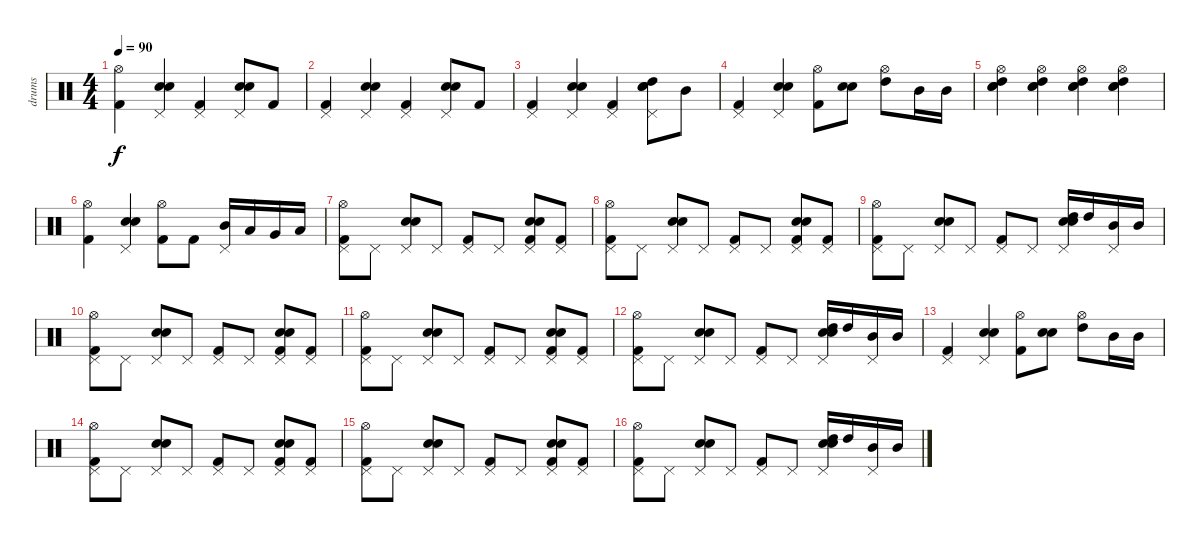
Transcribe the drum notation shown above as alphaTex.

\track ("drums" "drums") {instrument percussion}
\staff {score}
\articulation defaults
\ts (4 4)
\tempo 90
\clef neutral
\ks c
("Hi-Hat (open)" "Kick (hit) 2").4{dy f} ("Snare (hit) 2" "Electric Snare (hit)" "Pedal Hi-Hat (hit)").4 ("Kick (hit) 2" "Pedal Hi-Hat (hit)").4 ("Snare (hit) 2" "Electric Snare (hit)" "Pedal Hi-Hat (hit)").8 "Kick (hit) 2".8 |
("Kick (hit) 2" "Pedal Hi-Hat (hit)").4 ("Snare (hit) 2" "Electric Snare (hit)" "Pedal Hi-Hat (hit)").4 ("Kick (hit) 2" "Pedal Hi-Hat (hit)").4 ("Snare (hit) 2" "Electric Snare (hit)" "Pedal Hi-Hat (hit)").8 "Kick (hit) 2".8 |
("Kick (hit) 2" "Pedal Hi-Hat (hit)").4 ("Snare (hit) 2" "Electric Snare (hit)" "Pedal Hi-Hat (hit)").4 ("Kick (hit) 2" "Pedal Hi-Hat (hit)").4 ("Snare (hit) 2" "Electric Snare (hit)" "High Tom (hit)" "Pedal Hi-Hat (hit)").8 "Mid Tom (hit)".8 |
("Kick (hit) 2" "Pedal Hi-Hat (hit)").4 ("Snare (hit) 2" "Electric Snare (hit)" "Pedal Hi-Hat (hit)").4 ("Hi-Hat (open)" "Kick (hit) 2").8 ("Snare (hit) 2" "Electric Snare (hit)").8 ("Hi-Hat (open)" "High Tom (hit)").8 "Mid Tom (hit)".16 "Mid Tom (hit)".16 |
("Hi-Hat (open)" "Snare (hit) 2" "Electric Snare (hit)" "High Tom (hit)").4 ("Hi-Hat (open)" "Snare (hit) 2" "Electric Snare (hit)" "High Tom (hit)").4 ("Hi-Hat (open)" "Snare (hit) 2" "Electric Snare (hit)" "High Tom (hit)").4 ("Hi-Hat (open)" "Snare (hit) 2" "Electric Snare (hit)" "High Tom (hit)").4 |
("Hi-Hat (open)" "Kick (hit) 2").4 ("Snare (hit) 2" "Electric Snare (hit)" "Pedal Hi-Hat (hit)").4 ("Hi-Hat (open)" "Kick (hit) 2").8 "Kick (hit) 2".8 ("Mid Tom (hit)" "Pedal Hi-Hat (hit)").16 "Low Tom (hit)".16 "Very Low Tom (hit)".16 "Low Floor Tom (hit)".16 |
("Hi-Hat (open)" "Kick (hit) 2" "Pedal Hi-Hat (hit)").8 "Pedal Hi-Hat (hit)".8 ("Snare (hit) 2" "Electric Snare (hit)" "Pedal Hi-Hat (hit)").8 "Pedal Hi-Hat (hit)".8 ("Kick (hit) 2" "Pedal Hi-Hat (hit)").8 "Pedal Hi-Hat (hit)".8 ("Snare (hit) 2" "Electric Snare (hit)" "Kick (hit) 2" "Pedal Hi-Hat (hit)").8 ("Kick (hit) 2" "Pedal Hi-Hat (hit)").8 |
("Hi-Hat (open)" "Kick (hit) 2" "Pedal Hi-Hat (hit)").8 "Pedal Hi-Hat (hit)".8 ("Snare (hit) 2" "Electric Snare (hit)" "Pedal Hi-Hat (hit)").8 "Pedal Hi-Hat (hit)".8 ("Kick (hit) 2" "Pedal Hi-Hat (hit)").8 "Pedal Hi-Hat (hit)".8 ("Snare (hit) 2" "Electric Snare (hit)" "Kick (hit) 2" "Pedal Hi-Hat (hit)").8 ("Kick (hit) 2" "Pedal Hi-Hat (hit)").8 |
("Hi-Hat (open)" "Kick (hit) 2" "Pedal Hi-Hat (hit)").8 "Pedal Hi-Hat (hit)".8 ("Snare (hit) 2" "Electric Snare (hit)" "Pedal Hi-Hat (hit)").8 "Pedal Hi-Hat (hit)".8 ("Kick (hit) 2" "Pedal Hi-Hat (hit)").8 "Pedal Hi-Hat (hit)".8 ("Snare (hit) 2" "Electric Snare (hit)" "High Tom (hit)" "Pedal Hi-Hat (hit)").16 "High Tom (hit)".16 ("Mid Tom (hit)" "Pedal Hi-Hat (hit)").16 "Mid Tom (hit)".16 |
("Hi-Hat (open)" "Kick (hit) 2" "Pedal Hi-Hat (hit)").8 "Pedal Hi-Hat (hit)".8 ("Snare (hit) 2" "Electric Snare (hit)" "Pedal Hi-Hat (hit)").8 "Pedal Hi-Hat (hit)".8 ("Kick (hit) 2" "Pedal Hi-Hat (hit)").8 "Pedal Hi-Hat (hit)".8 ("Snare (hit) 2" "Electric Snare (hit)" "Kick (hit) 2" "Pedal Hi-Hat (hit)").8 ("Kick (hit) 2" "Pedal Hi-Hat (hit)").8 |
("Hi-Hat (open)" "Kick (hit) 2" "Pedal Hi-Hat (hit)").8 "Pedal Hi-Hat (hit)".8 ("Snare (hit) 2" "Electric Snare (hit)" "Pedal Hi-Hat (hit)").8 "Pedal Hi-Hat (hit)".8 ("Kick (hit) 2" "Pedal Hi-Hat (hit)").8 "Pedal Hi-Hat (hit)".8 ("Snare (hit) 2" "Electric Snare (hit)" "Kick (hit) 2" "Pedal Hi-Hat (hit)").8 ("Kick (hit) 2" "Pedal Hi-Hat (hit)").8 |
("Hi-Hat (open)" "Kick (hit) 2" "Pedal Hi-Hat (hit)").8 "Pedal Hi-Hat (hit)".8 ("Snare (hit) 2" "Electric Snare (hit)" "Pedal Hi-Hat (hit)").8 "Pedal Hi-Hat (hit)".8 ("Kick (hit) 2" "Pedal Hi-Hat (hit)").8 "Pedal Hi-Hat (hit)".8 ("Snare (hit) 2" "Electric Snare (hit)" "High Tom (hit)" "Pedal Hi-Hat (hit)").16 "High Tom (hit)".16 ("Mid Tom (hit)" "Pedal Hi-Hat (hit)").16 "Mid Tom (hit)".16 |
("Kick (hit) 2" "Pedal Hi-Hat (hit)").4 ("Snare (hit) 2" "Electric Snare (hit)" "Pedal Hi-Hat (hit)").4 ("Hi-Hat (open)" "Kick (hit) 2").8 ("Snare (hit) 2" "Electric Snare (hit)").8 ("Hi-Hat (open)" "High Tom (hit)").8 "Mid Tom (hit)".16 "Mid Tom (hit)".16 |
("Hi-Hat (open)" "Kick (hit) 2" "Pedal Hi-Hat (hit)").8 "Pedal Hi-Hat (hit)".8 ("Snare (hit) 2" "Electric Snare (hit)" "Pedal Hi-Hat (hit)").8 "Pedal Hi-Hat (hit)".8 ("Kick (hit) 2" "Pedal Hi-Hat (hit)").8 "Pedal Hi-Hat (hit)".8 ("Snare (hit) 2" "Electric Snare (hit)" "Kick (hit) 2" "Pedal Hi-Hat (hit)").8 ("Kick (hit) 2" "Pedal Hi-Hat (hit)").8 |
("Hi-Hat (open)" "Kick (hit) 2" "Pedal Hi-Hat (hit)").8 "Pedal Hi-Hat (hit)".8 ("Snare (hit) 2" "Electric Snare (hit)" "Pedal Hi-Hat (hit)").8 "Pedal Hi-Hat (hit)".8 ("Kick (hit) 2" "Pedal Hi-Hat (hit)").8 "Pedal Hi-Hat (hit)".8 ("Snare (hit) 2" "Electric Snare (hit)" "Kick (hit) 2" "Pedal Hi-Hat (hit)").8 ("Kick (hit) 2" "Pedal Hi-Hat (hit)").8 |
("Hi-Hat (open)" "Kick (hit) 2" "Pedal Hi-Hat (hit)").8 "Pedal Hi-Hat (hit)".8 ("Snare (hit) 2" "Electric Snare (hit)" "Pedal Hi-Hat (hit)").8 "Pedal Hi-Hat (hit)".8 ("Kick (hit) 2" "Pedal Hi-Hat (hit)").8 "Pedal Hi-Hat (hit)".8 ("Snare (hit) 2" "Electric Snare (hit)" "High Tom (hit)" "Pedal Hi-Hat (hit)").16 "High Tom (hit)".16 ("Mid Tom (hit)" "Pedal Hi-Hat (hit)").16 "Mid Tom (hit)".16
